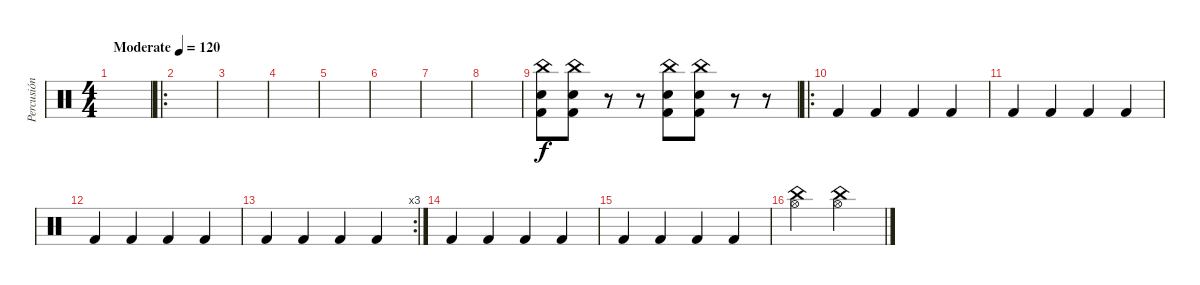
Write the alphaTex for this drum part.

\track ("Percusión" "Percusión") {instrument percussion}
\staff {score}
\articulation defaults
\ts (4 4)
\tempo (120 "Moderate")
\clef neutral
\ks c
|
\ro
|
|
|
|
|
|
|
("Kick (hit) 2" "Snare (hit) 2" "China (hit)").8 ("Kick (hit) 2" "Snare (hit) 2" "China (hit)").8 r.8 r.8 ("Snare (hit) 2" "Kick (hit) 2" "China (hit)").8 ("Snare (hit) 2" "Kick (hit) 2" "China (hit)").8 r.8 r.8 |
\ro "Kick (hit) 2".4 "Kick (hit) 2".4 "Kick (hit) 2".4 "Kick (hit) 2".4
|
"Kick (hit) 2".4 "Kick (hit) 2".4 "Kick (hit) 2".4 "Kick (hit) 2".4 |
"Kick (hit) 2".4 "Kick (hit) 2".4 "Kick (hit) 2".4 "Kick (hit) 2".4 |
\rc 3 "Kick (hit) 2".4 "Kick (hit) 2".4 "Kick (hit) 2".4 "Kick (hit) 2".4
|
"Kick (hit) 2".4 "Kick (hit) 2".4 "Kick (hit) 2".4 "Kick (hit) 2".4 |
"Kick (hit) 2".4 "Kick (hit) 2".4 "Kick (hit) 2".4 "Kick (hit) 2".4 |
("Hi-Hat (open)" "China (hit)").2 ("Hi-Hat (open)" "China (hit)").2
